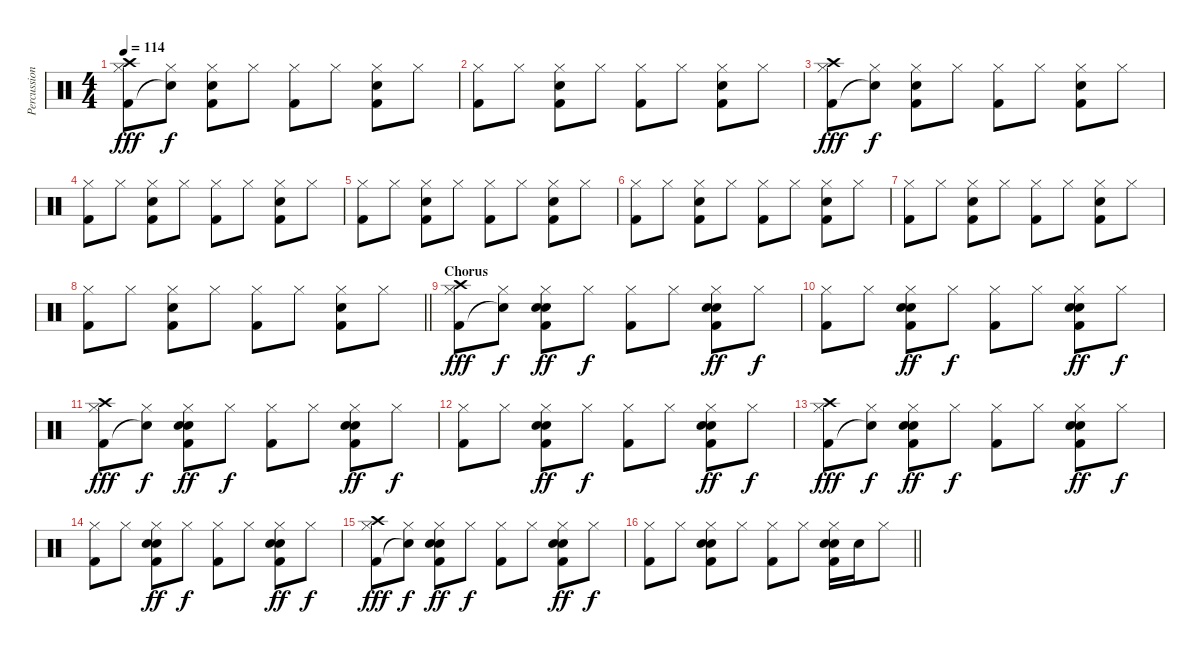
\track ("Percussion" "Percussion") {instrument percussion}
\staff {score}
\articulation defaults
\ts (4 4)
\tempo 114
\clef neutral
\ks c
("Hi-Hat (closed)" "Kick (hit) 2" "Crash high (hit)").8{dy fff} ("Hi-Hat (closed)" "Snare (hit)"{t}).8{dy f} ("Hi-Hat (closed)" "Snare (hit) 2" "Kick (hit) 2").8 "Hi-Hat (closed)".8 ("Hi-Hat (closed)" "Kick (hit) 2").8 "Hi-Hat (closed)".8 ("Hi-Hat (closed)" "Snare (hit) 2" "Kick (hit) 2").8 "Hi-Hat (closed)".8 |
("Hi-Hat (closed)" "Kick (hit) 2").8 "Hi-Hat (closed)".8 ("Hi-Hat (closed)" "Snare (hit) 2" "Kick (hit) 2").8 "Hi-Hat (closed)".8 ("Hi-Hat (closed)" "Kick (hit) 2").8 "Hi-Hat (closed)".8 ("Hi-Hat (closed)" "Snare (hit) 2" "Kick (hit) 2").8 "Hi-Hat (closed)".8 |
("Hi-Hat (closed)" "Kick (hit) 2" "Crash high (hit)").8{dy fff} ("Hi-Hat (closed)" "Snare (hit)"{t}).8{dy f} ("Hi-Hat (closed)" "Snare (hit) 2" "Kick (hit) 2").8 "Hi-Hat (closed)".8 ("Hi-Hat (closed)" "Kick (hit) 2").8 "Hi-Hat (closed)".8 ("Hi-Hat (closed)" "Snare (hit) 2" "Kick (hit) 2").8 "Hi-Hat (closed)".8 |
("Hi-Hat (closed)" "Kick (hit) 2").8 "Hi-Hat (closed)".8 ("Hi-Hat (closed)" "Snare (hit) 2" "Kick (hit) 2").8 "Hi-Hat (closed)".8 ("Hi-Hat (closed)" "Kick (hit) 2").8 "Hi-Hat (closed)".8 ("Hi-Hat (closed)" "Snare (hit) 2" "Kick (hit) 2").8 "Hi-Hat (closed)".8 |
("Hi-Hat (closed)" "Kick (hit) 2").8 "Hi-Hat (closed)".8 ("Hi-Hat (closed)" "Snare (hit) 2" "Kick (hit) 2").8 "Hi-Hat (closed)".8 ("Hi-Hat (closed)" "Kick (hit) 2").8 "Hi-Hat (closed)".8 ("Hi-Hat (closed)" "Snare (hit) 2" "Kick (hit) 2").8 "Hi-Hat (closed)".8 |
("Hi-Hat (closed)" "Kick (hit) 2").8 "Hi-Hat (closed)".8 ("Hi-Hat (closed)" "Snare (hit) 2" "Kick (hit) 2").8 "Hi-Hat (closed)".8 ("Hi-Hat (closed)" "Kick (hit) 2").8 "Hi-Hat (closed)".8 ("Hi-Hat (closed)" "Snare (hit) 2" "Kick (hit) 2").8 "Hi-Hat (closed)".8 |
("Hi-Hat (closed)" "Kick (hit) 2").8 "Hi-Hat (closed)".8 ("Hi-Hat (closed)" "Snare (hit) 2" "Kick (hit) 2").8 "Hi-Hat (closed)".8 ("Hi-Hat (closed)" "Kick (hit) 2").8 "Hi-Hat (closed)".8 ("Hi-Hat (closed)" "Snare (hit) 2" "Kick (hit) 2").8 "Hi-Hat (closed)".8 |
\barLineRight lightlight
("Hi-Hat (closed)" "Kick (hit) 2").8 "Hi-Hat (closed)".8 ("Hi-Hat (closed)" "Snare (hit) 2" "Kick (hit) 2").8 "Hi-Hat (closed)".8 ("Hi-Hat (closed)" "Kick (hit) 2").8 "Hi-Hat (closed)".8 ("Hi-Hat (closed)" "Snare (hit) 2" "Kick (hit) 2").8 "Hi-Hat (closed)".8 |
\section ("" "Chorus")
("Hi-Hat (closed)" "Kick (hit) 2" "Crash high (hit)").8{dy fff} ("Hi-Hat (closed)" "Snare (hit)"{t}).8{dy f} ("Hand Clap (hit)" "Hi-Hat (closed)" "Snare (hit) 2" "Kick (hit) 2").8{dy ff} "Hi-Hat (closed)".8{dy f} ("Hi-Hat (closed)" "Kick (hit) 2").8 "Hi-Hat (closed)".8 ("Hand Clap (hit)" "Hi-Hat (closed)" "Snare (hit) 2" "Kick (hit) 2").8{dy ff} "Hi-Hat (closed)".8{dy f} |
("Hi-Hat (closed)" "Kick (hit) 2").8 "Hi-Hat (closed)".8 ("Hand Clap (hit)" "Hi-Hat (closed)" "Snare (hit) 2" "Kick (hit) 2").8{dy ff} "Hi-Hat (closed)".8{dy f} ("Hi-Hat (closed)" "Kick (hit) 2").8 "Hi-Hat (closed)".8 ("Hand Clap (hit)" "Hi-Hat (closed)" "Snare (hit) 2" "Kick (hit) 2").8{dy ff} "Hi-Hat (closed)".8{dy f} |
("Hi-Hat (closed)" "Kick (hit) 2" "Crash high (hit)").8{dy fff} ("Hi-Hat (closed)" "Snare (hit)"{t}).8{dy f} ("Hand Clap (hit)" "Hi-Hat (closed)" "Snare (hit) 2" "Kick (hit) 2").8{dy ff} "Hi-Hat (closed)".8{dy f} ("Hi-Hat (closed)" "Kick (hit) 2").8 "Hi-Hat (closed)".8 ("Hand Clap (hit)" "Hi-Hat (closed)" "Snare (hit) 2" "Kick (hit) 2").8{dy ff} "Hi-Hat (closed)".8{dy f} |
("Hi-Hat (closed)" "Kick (hit) 2").8 "Hi-Hat (closed)".8 ("Hand Clap (hit)" "Hi-Hat (closed)" "Snare (hit) 2" "Kick (hit) 2").8{dy ff} "Hi-Hat (closed)".8{dy f} ("Hi-Hat (closed)" "Kick (hit) 2").8 "Hi-Hat (closed)".8 ("Hand Clap (hit)" "Hi-Hat (closed)" "Snare (hit) 2" "Kick (hit) 2").8{dy ff} "Hi-Hat (closed)".8{dy f} |
("Hi-Hat (closed)" "Kick (hit) 2" "Crash high (hit)").8{dy fff} ("Hi-Hat (closed)" "Snare (hit)"{t}).8{dy f} ("Hand Clap (hit)" "Hi-Hat (closed)" "Snare (hit) 2" "Kick (hit) 2").8{dy ff} "Hi-Hat (closed)".8{dy f} ("Hi-Hat (closed)" "Kick (hit) 2").8 "Hi-Hat (closed)".8 ("Hand Clap (hit)" "Hi-Hat (closed)" "Snare (hit) 2" "Kick (hit) 2").8{dy ff} "Hi-Hat (closed)".8{dy f} |
("Hi-Hat (closed)" "Kick (hit) 2").8 "Hi-Hat (closed)".8 ("Hand Clap (hit)" "Hi-Hat (closed)" "Snare (hit) 2" "Kick (hit) 2").8{dy ff} "Hi-Hat (closed)".8{dy f} ("Hi-Hat (closed)" "Kick (hit) 2").8 "Hi-Hat (closed)".8 ("Hand Clap (hit)" "Hi-Hat (closed)" "Snare (hit) 2" "Kick (hit) 2").8{dy ff} "Hi-Hat (closed)".8{dy f} |
("Hi-Hat (closed)" "Kick (hit) 2" "Crash high (hit)").8{dy fff} ("Hi-Hat (closed)" "Snare (hit)"{t}).8{dy f} ("Hand Clap (hit)" "Hi-Hat (closed)" "Snare (hit) 2" "Kick (hit) 2").8{dy ff} "Hi-Hat (closed)".8{dy f} ("Hi-Hat (closed)" "Kick (hit) 2").8 "Hi-Hat (closed)".8 ("Hand Clap (hit)" "Hi-Hat (closed)" "Snare (hit) 2" "Kick (hit) 2").8{dy ff} "Hi-Hat (closed)".8{dy f} |
\barLineRight lightlight
("Hi-Hat (closed)" "Kick (hit) 2").8 "Hi-Hat (closed)".8 ("Hand Clap (hit)" "Hi-Hat (closed)" "Snare (hit) 2" "Kick (hit) 2").8 "Hi-Hat (closed)".8 ("Hi-Hat (closed)" "Kick (hit) 2").8 "Hi-Hat (closed)".8 ("Hand Clap (hit)" "Hi-Hat (closed)" "Snare (hit) 2" "Kick (hit) 2").16 "Snare (hit) 2".16 "Hi-Hat (closed)".8
